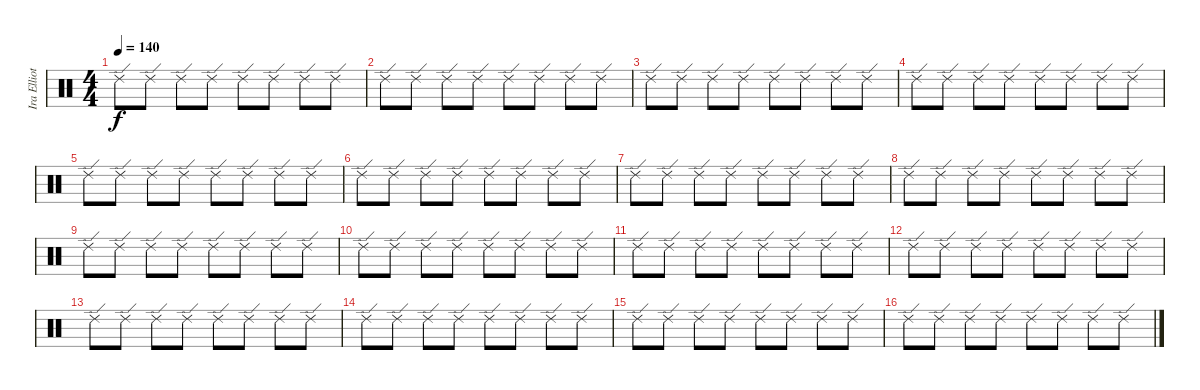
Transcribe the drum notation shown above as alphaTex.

\track ("Ira Elliott" "Ira Elliot") {instrument percussion}
\staff {score}
\articulation defaults
\ts (4 4)
\tempo 140
\clef neutral
\ks c "Ride (edge) 2".8{dy f} "Ride (edge) 2".8 "Ride (edge) 2".8 "Ride (edge) 2".8 "Ride (edge) 2".8 "Ride (edge) 2".8 "Ride (edge) 2".8 "Ride (edge) 2".8
|
"Ride (edge) 2".8 "Ride (edge) 2".8 "Ride (edge) 2".8 "Ride (edge) 2".8 "Ride (edge) 2".8 "Ride (edge) 2".8 "Ride (edge) 2".8 "Ride (edge) 2".8 |
"Ride (edge) 2".8 "Ride (edge) 2".8 "Ride (edge) 2".8 "Ride (edge) 2".8 "Ride (edge) 2".8 "Ride (edge) 2".8 "Ride (edge) 2".8 "Ride (edge) 2".8 |
"Ride (edge) 2".8 "Ride (edge) 2".8 "Ride (edge) 2".8 "Ride (edge) 2".8 "Ride (edge) 2".8 "Ride (edge) 2".8 "Ride (edge) 2".8 "Ride (edge) 2".8 |
"Ride (edge) 2".8 "Ride (edge) 2".8 "Ride (edge) 2".8 "Ride (edge) 2".8 "Ride (edge) 2".8 "Ride (edge) 2".8 "Ride (edge) 2".8 "Ride (edge) 2".8 |
"Ride (edge) 2".8 "Ride (edge) 2".8 "Ride (edge) 2".8 "Ride (edge) 2".8 "Ride (edge) 2".8 "Ride (edge) 2".8 "Ride (edge) 2".8 "Ride (edge) 2".8 |
"Ride (edge) 2".8 "Ride (edge) 2".8 "Ride (edge) 2".8 "Ride (edge) 2".8 "Ride (edge) 2".8 "Ride (edge) 2".8 "Ride (edge) 2".8 "Ride (edge) 2".8 |
"Ride (edge) 2".8 "Ride (edge) 2".8 "Ride (edge) 2".8 "Ride (edge) 2".8 "Ride (edge) 2".8 "Ride (edge) 2".8 "Ride (edge) 2".8 "Ride (edge) 2".8 |
"Ride (edge) 2".8 "Ride (edge) 2".8 "Ride (edge) 2".8 "Ride (edge) 2".8 "Ride (edge) 2".8 "Ride (edge) 2".8 "Ride (edge) 2".8 "Ride (edge) 2".8 |
"Ride (edge) 2".8 "Ride (edge) 2".8 "Ride (edge) 2".8 "Ride (edge) 2".8 "Ride (edge) 2".8 "Ride (edge) 2".8 "Ride (edge) 2".8 "Ride (edge) 2".8 |
"Ride (edge) 2".8 "Ride (edge) 2".8 "Ride (edge) 2".8 "Ride (edge) 2".8 "Ride (edge) 2".8 "Ride (edge) 2".8 "Ride (edge) 2".8 "Ride (edge) 2".8 |
"Ride (edge) 2".8 "Ride (edge) 2".8 "Ride (edge) 2".8 "Ride (edge) 2".8 "Ride (edge) 2".8 "Ride (edge) 2".8 "Ride (edge) 2".8 "Ride (edge) 2".8 |
"Ride (edge) 2".8 "Ride (edge) 2".8 "Ride (edge) 2".8 "Ride (edge) 2".8 "Ride (edge) 2".8 "Ride (edge) 2".8 "Ride (edge) 2".8 "Ride (edge) 2".8 |
"Ride (edge) 2".8 "Ride (edge) 2".8 "Ride (edge) 2".8 "Ride (edge) 2".8 "Ride (edge) 2".8 "Ride (edge) 2".8 "Ride (edge) 2".8 "Ride (edge) 2".8 |
"Ride (edge) 2".8 "Ride (edge) 2".8 "Ride (edge) 2".8 "Ride (edge) 2".8 "Ride (edge) 2".8 "Ride (edge) 2".8 "Ride (edge) 2".8 "Ride (edge) 2".8 |
"Ride (edge) 2".8 "Ride (edge) 2".8 "Ride (edge) 2".8 "Ride (edge) 2".8 "Ride (edge) 2".8 "Ride (edge) 2".8 "Ride (edge) 2".8 "Ride (edge) 2".8
